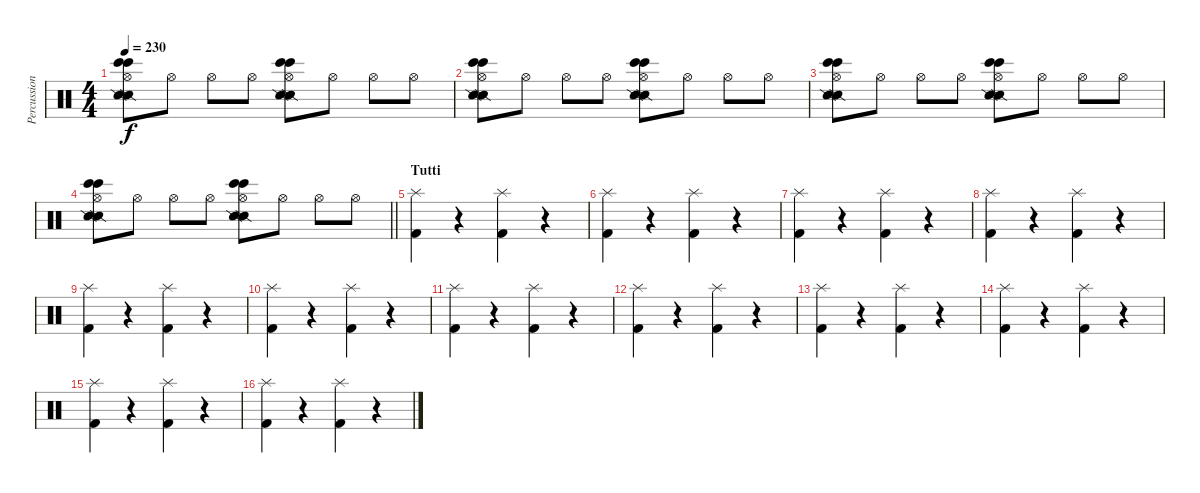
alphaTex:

\track ("Percussion" "Percussion") {instrument percussion}
\staff {score}
\articulation defaults
\ts (4 4)
\tempo 230
\clef neutral
\ks c
("Snare (side stick) 2" "Bongo High (hit)" "Snare (side stick) 2" "Bongo High (hit)" "Hi-Hat (open)").8{dy f} "Hi-Hat (open)".8 "Hi-Hat (open)".8 "Hi-Hat (open)".8 ("Snare (side stick) 2" "Bongo High (hit)" "Snare (side stick) 2" "Bongo High (hit)" "Hi-Hat (open)").8 "Hi-Hat (open)".8 "Hi-Hat (open)".8 "Hi-Hat (open)".8 |
("Snare (side stick) 2" "Bongo High (hit)" "Snare (side stick) 2" "Bongo High (hit)" "Hi-Hat (open)").8 "Hi-Hat (open)".8 "Hi-Hat (open)".8 "Hi-Hat (open)".8 ("Snare (side stick) 2" "Bongo High (hit)" "Snare (side stick) 2" "Bongo High (hit)" "Hi-Hat (open)").8 "Hi-Hat (open)".8 "Hi-Hat (open)".8 "Hi-Hat (open)".8 |
("Snare (side stick) 2" "Bongo High (hit)" "Snare (side stick) 2" "Bongo High (hit)" "Hi-Hat (open)").8 "Hi-Hat (open)".8 "Hi-Hat (open)".8 "Hi-Hat (open)".8 ("Snare (side stick) 2" "Bongo High (hit)" "Snare (side stick) 2" "Bongo High (hit)" "Hi-Hat (open)").8 "Hi-Hat (open)".8 "Hi-Hat (open)".8 "Hi-Hat (open)".8 |
\barLineRight lightlight
("Snare (side stick) 2" "Bongo High (hit)" "Snare (side stick) 2" "Bongo High (hit)" "Hi-Hat (open)").8 "Hi-Hat (open)".8 "Hi-Hat (open)".8 "Hi-Hat (open)".8 ("Snare (side stick) 2" "Bongo High (hit)" "Snare (side stick) 2" "Bongo High (hit)" "Hi-Hat (open)").8 "Hi-Hat (open)".8 "Hi-Hat (open)".8 "Hi-Hat (open)".8 |
\section ("" "Tutti")
("Kick (hit) 2" "Splash (hit)").4{volume 14} r.4 ("Kick (hit) 2" "Splash (hit)").4 r.4 |
("Kick (hit) 2" "Splash (hit)").4 r.4 ("Kick (hit) 2" "Splash (hit)").4 r.4 |
("Kick (hit) 2" "Splash (hit)").4 r.4 ("Kick (hit) 2" "Splash (hit)").4 r.4 |
("Kick (hit) 2" "Splash (hit)").4 r.4 ("Kick (hit) 2" "Splash (hit)").4 r.4 |
("Kick (hit) 2" "Splash (hit)").4 r.4 ("Kick (hit) 2" "Splash (hit)").4 r.4 |
("Kick (hit) 2" "Splash (hit)").4 r.4 ("Kick (hit) 2" "Splash (hit)").4 r.4 |
("Kick (hit) 2" "Splash (hit)").4 r.4 ("Kick (hit) 2" "Splash (hit)").4 r.4 |
("Kick (hit) 2" "Splash (hit)").4 r.4 ("Kick (hit) 2" "Splash (hit)").4 r.4 |
("Kick (hit) 2" "Splash (hit)").4 r.4 ("Kick (hit) 2" "Splash (hit)").4 r.4 |
("Kick (hit) 2" "Splash (hit)").4 r.4 ("Kick (hit) 2" "Splash (hit)").4 r.4 |
("Kick (hit) 2" "Splash (hit)").4 r.4 ("Kick (hit) 2" "Splash (hit)").4 r.4 |
("Kick (hit) 2" "Splash (hit)").4 r.4 ("Kick (hit) 2" "Splash (hit)").4 r.4
